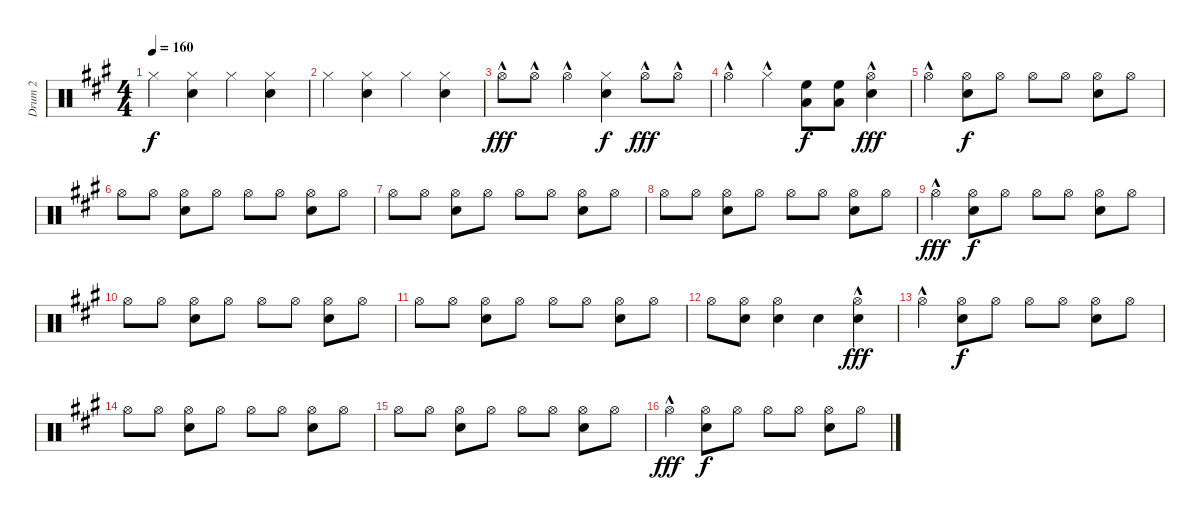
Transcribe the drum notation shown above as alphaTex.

\track ("Drum 2" "Drum 2") {instrument percussion}
\staff {score}
\articulation defaults
\ts (4 4)
\tempo 160
\clef neutral
\ks a "Hi-Hat (closed)".4{dy f}
("Hi-Hat (closed)" "Snare (hit) 2").4 "Hi-Hat (closed)".4 ("Hi-Hat (closed)" "Snare (hit) 2").4 |
"Hi-Hat (closed)".4 ("Hi-Hat (closed)" "Snare (hit) 2").4 "Hi-Hat (closed)".4 ("Hi-Hat (closed)" "Snare (hit) 2").4 |
"Hi-Hat (open)"{hac}.8{dy fff} "Hi-Hat (open)"{hac}.8 "Hi-Hat (open)"{hac}.4 ("Hi-Hat (closed)" "Snare (hit) 2").4{dy f} "Hi-Hat (open)"{hac}.8{dy fff} "Hi-Hat (open)"{hac}.8 |
"Hi-Hat (open)"{hac}.4 "Hi-Hat (closed)"{hac}.4 ("High Floor Tom (hit)" "Low Tom (hit)").8{dy f} ("High Floor Tom (hit)" "Low Tom (hit)").8 ("Hi-Hat (open)"{hac} "Snare (hit) 2").4{dy fff} |
"Hi-Hat (open)"{hac}.4 ("Hi-Hat (open)" "Snare (hit) 2").8{dy f} "Hi-Hat (open)".8 "Hi-Hat (open)".8 "Hi-Hat (open)".8 ("Hi-Hat (open)" "Snare (hit) 2").8 "Hi-Hat (open)".8 |
"Hi-Hat (open)".8 "Hi-Hat (open)".8 ("Hi-Hat (open)" "Snare (hit) 2").8 "Hi-Hat (open)".8 "Hi-Hat (open)".8 "Hi-Hat (open)".8 ("Hi-Hat (open)" "Snare (hit) 2").8 "Hi-Hat (open)".8 |
"Hi-Hat (open)".8 "Hi-Hat (open)".8 ("Hi-Hat (open)" "Snare (hit) 2").8 "Hi-Hat (open)".8 "Hi-Hat (open)".8 "Hi-Hat (open)".8 ("Hi-Hat (open)" "Snare (hit) 2").8 "Hi-Hat (open)".8 |
"Hi-Hat (open)".8 "Hi-Hat (open)".8 ("Hi-Hat (open)" "Snare (hit) 2").8 "Hi-Hat (open)".8 "Hi-Hat (open)".8 "Hi-Hat (open)".8 ("Hi-Hat (open)" "Snare (hit) 2").8 "Hi-Hat (open)".8 |
"Hi-Hat (open)"{hac}.4{dy fff} ("Hi-Hat (open)" "Snare (hit) 2").8{dy f} "Hi-Hat (open)".8 "Hi-Hat (open)".8 "Hi-Hat (open)".8 ("Hi-Hat (open)" "Snare (hit) 2").8 "Hi-Hat (open)".8 |
"Hi-Hat (open)".8 "Hi-Hat (open)".8 ("Hi-Hat (open)" "Snare (hit) 2").8 "Hi-Hat (open)".8 "Hi-Hat (open)".8 "Hi-Hat (open)".8 ("Hi-Hat (open)" "Snare (hit) 2").8 "Hi-Hat (open)".8 |
"Hi-Hat (open)".8 "Hi-Hat (open)".8 ("Hi-Hat (open)" "Snare (hit) 2").8 "Hi-Hat (open)".8 "Hi-Hat (open)".8 "Hi-Hat (open)".8 ("Hi-Hat (open)" "Snare (hit) 2").8 "Hi-Hat (open)".8 |
"Hi-Hat (open)".8 ("Hi-Hat (open)" "Snare (hit) 2").8 ("Hi-Hat (open)" "Snare (hit) 2").4 "Snare (hit) 2".4 ("Hi-Hat (open)"{hac} "Snare (hit) 2").4{dy fff} |
"Hi-Hat (open)"{hac}.4 ("Hi-Hat (open)" "Snare (hit) 2").8{dy f} "Hi-Hat (open)".8 "Hi-Hat (open)".8 "Hi-Hat (open)".8 ("Hi-Hat (open)" "Snare (hit) 2").8 "Hi-Hat (open)".8 |
"Hi-Hat (open)".8 "Hi-Hat (open)".8 ("Hi-Hat (open)" "Snare (hit) 2").8 "Hi-Hat (open)".8 "Hi-Hat (open)".8 "Hi-Hat (open)".8 ("Hi-Hat (open)" "Snare (hit) 2").8 "Hi-Hat (open)".8 |
"Hi-Hat (open)".8 "Hi-Hat (open)".8 ("Hi-Hat (open)" "Snare (hit) 2").8 "Hi-Hat (open)".8 "Hi-Hat (open)".8 "Hi-Hat (open)".8 ("Hi-Hat (open)" "Snare (hit) 2").8 "Hi-Hat (open)".8 |
"Hi-Hat (open)"{hac}.4{dy fff} ("Hi-Hat (open)" "Snare (hit) 2").8{dy f} "Hi-Hat (open)".8 "Hi-Hat (open)".8 "Hi-Hat (open)".8 ("Hi-Hat (open)" "Snare (hit) 2").8 "Hi-Hat (open)".8
